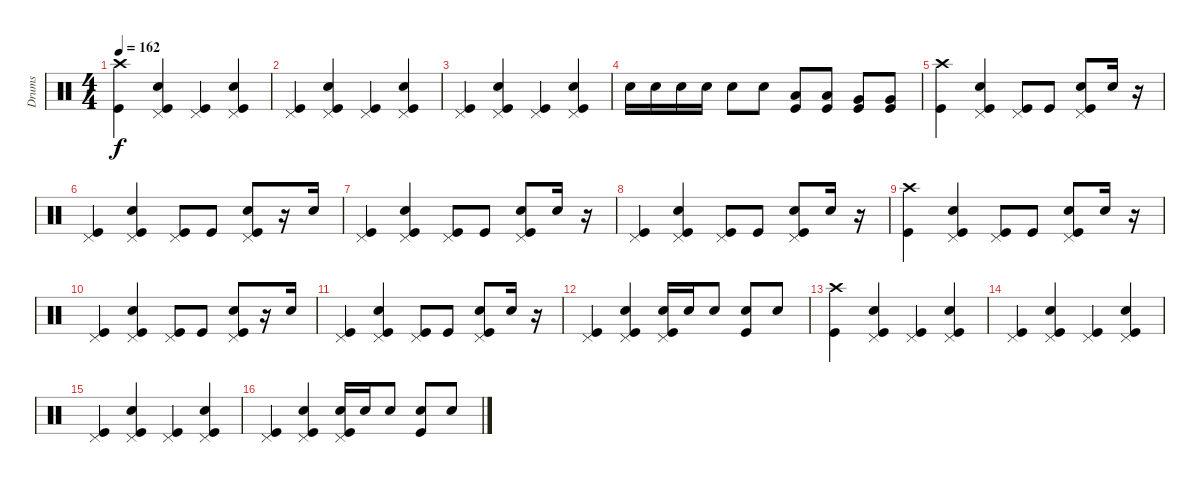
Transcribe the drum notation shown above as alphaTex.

\track ("Drums" "Drums") {instrument percussion}
\staff {score}
\articulation defaults
\ts (4 4)
\tempo 162
\clef neutral
\ks c
("Kick (hit)" "Crash high (hit)").4{dy f} ("Kick (hit)" "Snare (hit) 2" "Pedal Hi-Hat (hit)").4 ("Kick (hit)" "Pedal Hi-Hat (hit)").4 ("Kick (hit)" "Snare (hit) 2" "Pedal Hi-Hat (hit)").4 |
("Kick (hit)" "Pedal Hi-Hat (hit)").4 ("Kick (hit)" "Snare (hit) 2" "Pedal Hi-Hat (hit)").4 ("Kick (hit)" "Pedal Hi-Hat (hit)").4 ("Kick (hit)" "Snare (hit) 2" "Pedal Hi-Hat (hit)").4 |
("Kick (hit)" "Pedal Hi-Hat (hit)").4 ("Kick (hit)" "Snare (hit) 2" "Pedal Hi-Hat (hit)").4 ("Kick (hit)" "Pedal Hi-Hat (hit)").4 ("Kick (hit)" "Snare (hit) 2" "Pedal Hi-Hat (hit)").4 |
"Snare (hit) 2".16 "Snare (hit) 2".16 "Snare (hit) 2".16 "Snare (hit) 2".16 "Snare (hit) 2".8 "Snare (hit) 2".8 ("Kick (hit)" "Low Tom (hit)").8 ("Kick (hit)" "Low Tom (hit)").8 ("Kick (hit)" "Very Low Tom (hit)").8 ("Kick (hit)" "Very Low Tom (hit)").8 |
("Kick (hit)" "Crash high (hit)").4 ("Kick (hit)" "Snare (hit) 2" "Pedal Hi-Hat (hit)").4 ("Kick (hit)" "Pedal Hi-Hat (hit)").8 "Kick (hit)".8 ("Kick (hit)" "Snare (hit) 2" "Pedal Hi-Hat (hit)").8 "Snare (hit) 2".16 r.16 |
("Kick (hit)" "Pedal Hi-Hat (hit)").4 ("Kick (hit)" "Snare (hit) 2" "Pedal Hi-Hat (hit)").4 ("Kick (hit)" "Pedal Hi-Hat (hit)").8 "Kick (hit)".8 ("Kick (hit)" "Snare (hit) 2" "Pedal Hi-Hat (hit)").8 r.16 "Snare (hit) 2".16 |
("Kick (hit)" "Pedal Hi-Hat (hit)").4 ("Kick (hit)" "Snare (hit) 2" "Pedal Hi-Hat (hit)").4 ("Kick (hit)" "Pedal Hi-Hat (hit)").8 "Kick (hit)".8 ("Kick (hit)" "Snare (hit) 2" "Pedal Hi-Hat (hit)").8 "Snare (hit) 2".16 r.16 |
("Kick (hit)" "Pedal Hi-Hat (hit)").4 ("Kick (hit)" "Snare (hit) 2" "Pedal Hi-Hat (hit)").4 ("Kick (hit)" "Pedal Hi-Hat (hit)").8 "Kick (hit)".8 ("Kick (hit)" "Snare (hit) 2" "Pedal Hi-Hat (hit)").8 "Snare (hit) 2".16 r.16 |
("Kick (hit)" "Crash high (hit)").4 ("Kick (hit)" "Snare (hit) 2" "Pedal Hi-Hat (hit)").4 ("Kick (hit)" "Pedal Hi-Hat (hit)").8 "Kick (hit)".8 ("Kick (hit)" "Snare (hit) 2" "Pedal Hi-Hat (hit)").8 "Snare (hit) 2".16 r.16 |
("Kick (hit)" "Pedal Hi-Hat (hit)").4 ("Kick (hit)" "Snare (hit) 2" "Pedal Hi-Hat (hit)").4 ("Kick (hit)" "Pedal Hi-Hat (hit)").8 "Kick (hit)".8 ("Kick (hit)" "Snare (hit) 2" "Pedal Hi-Hat (hit)").8 r.16 "Snare (hit) 2".16 |
("Kick (hit)" "Pedal Hi-Hat (hit)").4 ("Kick (hit)" "Snare (hit) 2" "Pedal Hi-Hat (hit)").4 ("Kick (hit)" "Pedal Hi-Hat (hit)").8 "Kick (hit)".8 ("Kick (hit)" "Snare (hit) 2" "Pedal Hi-Hat (hit)").8 "Snare (hit) 2".16 r.16 |
("Kick (hit)" "Pedal Hi-Hat (hit)").4 ("Kick (hit)" "Snare (hit) 2" "Pedal Hi-Hat (hit)").4 ("Kick (hit)" "Snare (hit) 2" "Pedal Hi-Hat (hit)").16 "Snare (hit) 2".16 "Snare (hit) 2".8 ("Kick (hit)" "Snare (hit) 2").8 "Snare (hit) 2".8 |
("Kick (hit)" "Crash high (hit)").4 ("Kick (hit)" "Snare (hit) 2" "Pedal Hi-Hat (hit)").4 ("Kick (hit)" "Pedal Hi-Hat (hit)").4 ("Kick (hit)" "Snare (hit) 2" "Pedal Hi-Hat (hit)").4 |
("Kick (hit)" "Pedal Hi-Hat (hit)").4 ("Kick (hit)" "Snare (hit) 2" "Pedal Hi-Hat (hit)").4 ("Kick (hit)" "Pedal Hi-Hat (hit)").4 ("Kick (hit)" "Snare (hit) 2" "Pedal Hi-Hat (hit)").4 |
("Kick (hit)" "Pedal Hi-Hat (hit)").4 ("Kick (hit)" "Snare (hit) 2" "Pedal Hi-Hat (hit)").4 ("Kick (hit)" "Pedal Hi-Hat (hit)").4 ("Kick (hit)" "Snare (hit) 2" "Pedal Hi-Hat (hit)").4 |
("Kick (hit)" "Pedal Hi-Hat (hit)").4 ("Kick (hit)" "Snare (hit) 2" "Pedal Hi-Hat (hit)").4 ("Kick (hit)" "Snare (hit) 2" "Pedal Hi-Hat (hit)").16 "Snare (hit) 2".16 "Snare (hit) 2".8 ("Kick (hit)" "Snare (hit) 2").8 "Snare (hit) 2".8
